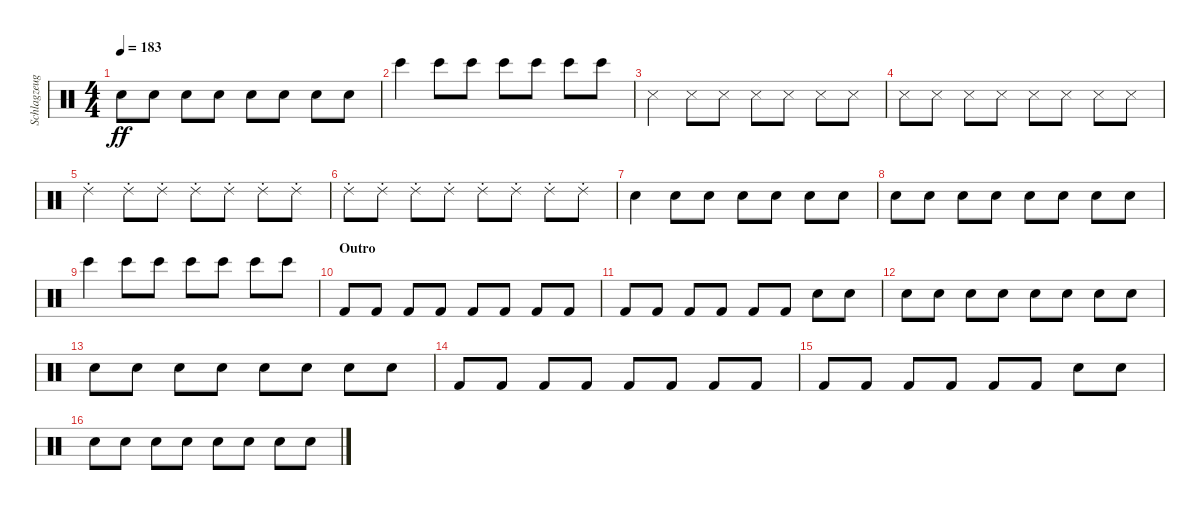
\track ("Schlagzeug - Bela B." "Schlagzeug") {instrument percussion}
\staff {score}
\articulation defaults
\ts (4 4)
\tempo 183
\clef neutral
\ks c "Snare (hit) 2".8{dy ff} "Snare (hit) 2".8 "Snare (hit) 2".8 "Snare (hit) 2".8 "Snare (hit) 2".8 "Snare (hit) 2".8 "Snare (hit) 2".8 "Snare (hit) 2".8
|
"Bongo High (hit)".4 "Bongo High (hit)".8 "Bongo High (hit)".8 "Bongo High (hit)".8 "Bongo High (hit)".8 "Bongo High (hit)".8 "Bongo High (hit)".8 |
"Metronome (hit)".4 "Metronome (hit)".8 "Metronome (hit)".8 "Metronome (hit)".8 "Metronome (hit)".8 "Metronome (hit)".8 "Metronome (hit)".8 |
"Metronome (hit)".8 "Metronome (hit)".8 "Metronome (hit)".8 "Metronome (hit)".8 "Metronome (hit)".8 "Metronome (hit)".8 "Metronome (hit)".8 "Metronome (hit)".8 |
"Ride (choke) 2".4 "Ride (choke) 2".8 "Ride (choke) 2".8 "Ride (choke) 2".8 "Ride (choke) 2".8 "Ride (choke) 2".8 "Ride (choke) 2".8 |
"Ride (choke) 2".8 "Ride (choke) 2".8 "Ride (choke) 2".8 "Ride (choke) 2".8 "Ride (choke) 2".8 "Ride (choke) 2".8 "Ride (choke) 2".8 "Ride (choke) 2".8 |
"Snare (hit) 2".4 "Snare (hit) 2".8 "Snare (hit) 2".8 "Snare (hit) 2".8 "Snare (hit) 2".8 "Snare (hit) 2".8 "Snare (hit) 2".8 |
"Snare (hit) 2".8 "Snare (hit) 2".8 "Snare (hit) 2".8 "Snare (hit) 2".8 "Snare (hit) 2".8 "Snare (hit) 2".8 "Snare (hit) 2".8 "Snare (hit) 2".8 |
"Bongo High (hit)".4 "Bongo High (hit)".8 "Bongo High (hit)".8 "Bongo High (hit)".8 "Bongo High (hit)".8 "Bongo High (hit)".8 "Bongo High (hit)".8 |
\section ("" "Outro")
"Kick (hit) 2".8 "Kick (hit) 2".8 "Kick (hit) 2".8 "Kick (hit) 2".8 "Kick (hit) 2".8 "Kick (hit) 2".8 "Kick (hit) 2".8 "Kick (hit) 2".8 |
"Kick (hit) 2".8 "Kick (hit) 2".8 "Kick (hit) 2".8 "Kick (hit) 2".8 "Kick (hit) 2".8 "Kick (hit) 2".8 "Snare (hit) 2".8 "Snare (hit) 2".8 |
"Electric Snare (hit)".8 "Electric Snare (hit)".8 "Electric Snare (hit)".8 "Electric Snare (hit)".8 "Electric Snare (hit)".8 "Electric Snare (hit)".8 "Electric Snare (hit)".8 "Electric Snare (hit)".8 |
"Electric Snare (hit)".8 "Electric Snare (hit)".8 "Electric Snare (hit)".8 "Electric Snare (hit)".8 "Electric Snare (hit)".8 "Electric Snare (hit)".8 "Snare (hit) 2".8 "Snare (hit) 2".8 |
"Kick (hit) 2".8 "Kick (hit) 2".8 "Kick (hit) 2".8 "Kick (hit) 2".8 "Kick (hit) 2".8 "Kick (hit) 2".8 "Kick (hit) 2".8 "Kick (hit) 2".8 |
"Kick (hit) 2".8 "Kick (hit) 2".8 "Kick (hit) 2".8 "Kick (hit) 2".8 "Kick (hit) 2".8 "Kick (hit) 2".8 "Snare (hit) 2".8 "Snare (hit) 2".8 |
"Electric Snare (hit)".8 "Electric Snare (hit)".8 "Electric Snare (hit)".8 "Electric Snare (hit)".8 "Electric Snare (hit)".8 "Electric Snare (hit)".8 "Electric Snare (hit)".8 "Electric Snare (hit)".8
